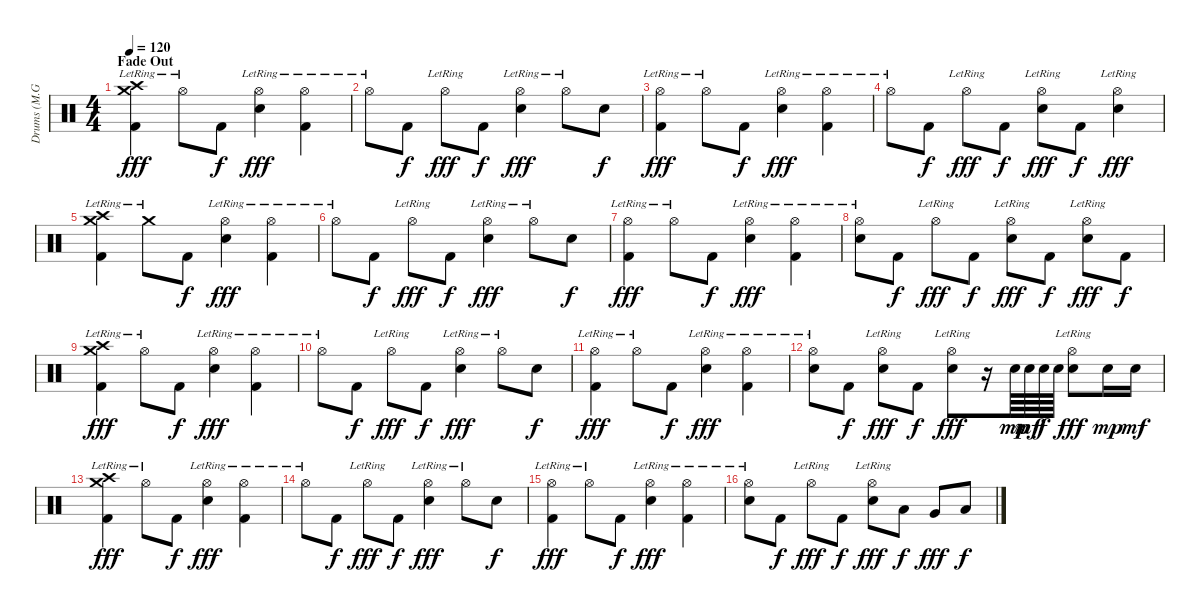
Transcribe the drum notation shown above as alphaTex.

\track ("Drums (M.Grosskopf)" "Drums (M.G") {instrument percussion}
\staff {score}
\articulation defaults
\ts (4 4)
\section ("" "Fade Out")
\tempo 120
\clef neutral
\ks c
("Crash high (hit)"{lr} "Crash medium (hit)"{lr} "Kick (hit) 2").4{dy fff} "Hi-Hat (open)"{lr}.8 "Kick (hit) 2".8{dy f} ("Hi-Hat (open)"{lr} "Electric Snare (hit)").4{dy fff} ("Hi-Hat (open)"{lr} "Kick (hit) 2").4 |
"Hi-Hat (open)"{lr}.8 "Kick (hit) 2".8{dy f} "Hi-Hat (open)"{lr}.8{dy fff} "Kick (hit) 2".8{dy f} ("Hi-Hat (open)"{lr} "Electric Snare (hit)").4{dy fff} "Hi-Hat (open)"{lr}.8 "Electric Snare (hit)".8{dy f} |
("Hi-Hat (open)"{lr} "Kick (hit) 2").4{dy fff} "Hi-Hat (open)"{lr}.8 "Kick (hit) 2".8{dy f} ("Hi-Hat (open)"{lr} "Electric Snare (hit)").4{dy fff} ("Hi-Hat (open)"{lr} "Kick (hit) 2").4 |
"Hi-Hat (open)"{lr}.8 "Kick (hit) 2".8{dy f} "Hi-Hat (open)"{lr}.8{dy fff} "Kick (hit) 2".8{dy f} ("Hi-Hat (open)"{lr} "Electric Snare (hit)").8{dy fff} "Kick (hit) 2".8{dy f} ("Hi-Hat (open)"{lr} "Electric Snare (hit)").4{dy fff} |
("Crash high (hit)"{lr} "Crash medium (hit)"{lr} "Kick (hit) 2").4 "Crash medium (hit)"{lr}.8 "Kick (hit) 2".8{dy f} ("Hi-Hat (open)"{lr} "Electric Snare (hit)").4{dy fff} ("Hi-Hat (open)"{lr} "Kick (hit) 2").4 |
"Hi-Hat (open)"{lr}.8 "Kick (hit) 2".8{dy f} "Hi-Hat (open)"{lr}.8{dy fff} "Kick (hit) 2".8{dy f} ("Hi-Hat (open)"{lr} "Electric Snare (hit)").4{dy fff} "Hi-Hat (open)"{lr}.8 "Electric Snare (hit)".8{dy f} |
("Hi-Hat (open)"{lr} "Kick (hit) 2").4{dy fff} "Hi-Hat (open)"{lr}.8 "Kick (hit) 2".8{dy f} ("Hi-Hat (open)"{lr} "Electric Snare (hit)").4{dy fff} ("Hi-Hat (open)"{lr} "Kick (hit) 2").4 |
("Hi-Hat (open)"{lr} "Electric Snare (hit)").8 "Kick (hit) 2".8{dy f} "Hi-Hat (open)"{lr}.8{dy fff} "Kick (hit) 2".8{dy f} ("Hi-Hat (open)"{lr} "Electric Snare (hit)").8{dy fff} "Kick (hit) 2".8{dy f} ("Hi-Hat (open)"{lr} "Electric Snare (hit)").8{dy fff} "Kick (hit) 2".8{dy f} |
("Crash high (hit)"{lr} "Crash medium (hit)"{lr} "Kick (hit) 2").4{dy fff} "Hi-Hat (open)"{lr}.8 "Kick (hit) 2".8{dy f} ("Hi-Hat (open)"{lr} "Electric Snare (hit)").4{dy fff} ("Hi-Hat (open)"{lr} "Kick (hit) 2").4 |
"Hi-Hat (open)"{lr}.8 "Kick (hit) 2".8{dy f} "Hi-Hat (open)"{lr}.8{dy fff} "Kick (hit) 2".8{dy f} ("Hi-Hat (open)"{lr} "Electric Snare (hit)").4{dy fff} "Hi-Hat (open)"{lr}.8 "Electric Snare (hit)".8{dy f} |
("Hi-Hat (open)"{lr} "Kick (hit) 2").4{dy fff} "Hi-Hat (open)"{lr}.8 "Kick (hit) 2".8{dy f} ("Hi-Hat (open)"{lr} "Electric Snare (hit)").4{dy fff} ("Hi-Hat (open)"{lr} "Kick (hit) 2").4 |
("Hi-Hat (open)"{lr} "Electric Snare (hit)").8 "Kick (hit) 2".8{dy f} ("Hi-Hat (open)"{lr} "Electric Snare (hit)").8{dy fff} "Kick (hit) 2".8{dy f} ("Hi-Hat (open)"{lr} "Electric Snare (hit)").8{dy fff} r.16 "Electric Snare (hit)".64{dy mp} "Electric Snare (hit)".64{dy mf} "Electric Snare (hit)".64{dy f} "Electric Snare (hit)".64 ("Hi-Hat (open)"{lr} "Electric Snare (hit)").8{dy fff} "Electric Snare (hit)".16{dy mp} "Electric Snare (hit)".16{dy mf} |
("Crash high (hit)"{lr} "Crash medium (hit)"{lr} "Kick (hit) 2").4{dy fff} "Hi-Hat (open)"{lr}.8 "Kick (hit) 2".8{dy f} ("Hi-Hat (open)"{lr} "Electric Snare (hit)").4{dy fff} ("Hi-Hat (open)"{lr} "Kick (hit) 2").4 |
"Hi-Hat (open)"{lr}.8 "Kick (hit) 2".8{dy f} "Hi-Hat (open)"{lr}.8{dy fff} "Kick (hit) 2".8{dy f} ("Hi-Hat (open)"{lr} "Electric Snare (hit)").4{dy fff} "Hi-Hat (open)"{lr}.8 "Electric Snare (hit)".8{dy f} |
("Hi-Hat (open)"{lr} "Kick (hit) 2").4{dy fff} "Hi-Hat (open)"{lr}.8 "Kick (hit) 2".8{dy f} ("Hi-Hat (open)"{lr} "Electric Snare (hit)").4{dy fff} ("Hi-Hat (open)"{lr} "Kick (hit) 2").4 |
("Hi-Hat (open)"{lr} "Electric Snare (hit)").8 "Kick (hit) 2".8{dy f} "Hi-Hat (open)"{lr}.8{dy fff} "Kick (hit) 2".8{dy f} ("Hi-Hat (open)"{lr} "Electric Snare (hit)").8{dy fff} "Low Tom (hit)".8{dy f} "Very Low Tom (hit)".8{dy fff} "Low Floor Tom (hit)".8{dy f}
